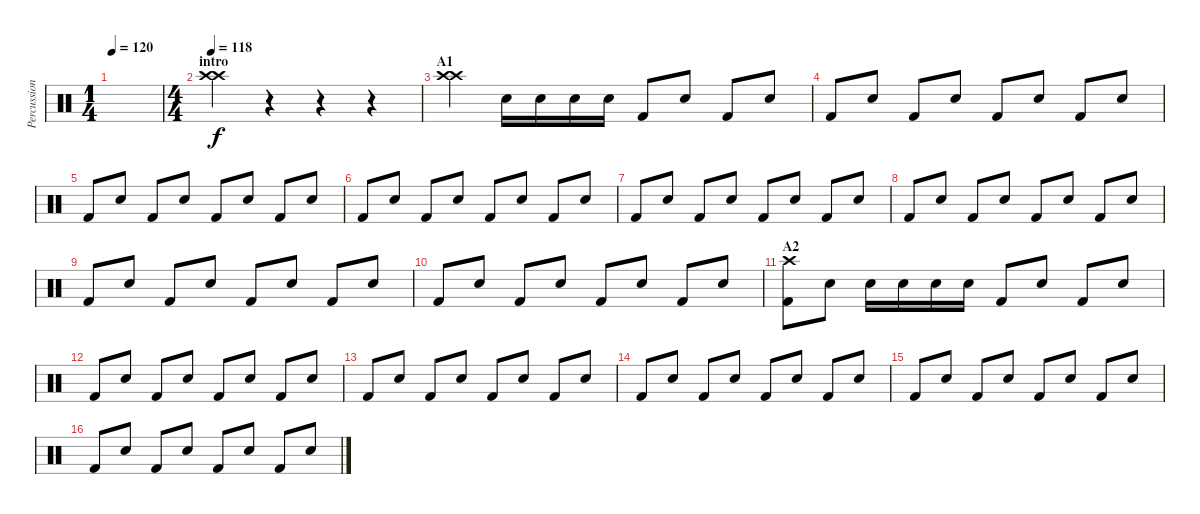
\track ("Percussion" "Percussion") {instrument percussion}
\staff {score}
\articulation defaults
\ts (1 4)
\tempo 120
\clef neutral
\ks c
|
\ts (4 4)
\section ("" "intro")
\tempo 118
("Crash high (hit)" "Crash high (hit)").4 r.4 r.4 r.4 |
\section ("" "A1")
("Crash high (hit)" "Crash high (hit)").4 "Electric Snare (hit)".16 "Electric Snare (hit)".16 "Electric Snare (hit)".16 "Electric Snare (hit)".16 "Kick (hit) 2".8 "Electric Snare (hit)".8 "Kick (hit) 2".8 "Electric Snare (hit)".8 |
"Kick (hit) 2".8 "Electric Snare (hit)".8 "Kick (hit) 2".8 "Electric Snare (hit)".8 "Kick (hit) 2".8 "Electric Snare (hit)".8 "Kick (hit) 2".8 "Electric Snare (hit)".8 |
"Kick (hit) 2".8 "Electric Snare (hit)".8 "Kick (hit) 2".8 "Electric Snare (hit)".8 "Kick (hit) 2".8 "Electric Snare (hit)".8 "Kick (hit) 2".8 "Electric Snare (hit)".8 |
"Kick (hit) 2".8 "Electric Snare (hit)".8 "Kick (hit) 2".8 "Electric Snare (hit)".8 "Kick (hit) 2".8 "Electric Snare (hit)".8 "Kick (hit) 2".8 "Electric Snare (hit)".8 |
"Kick (hit) 2".8 "Electric Snare (hit)".8 "Kick (hit) 2".8 "Electric Snare (hit)".8 "Kick (hit) 2".8 "Electric Snare (hit)".8 "Kick (hit) 2".8 "Electric Snare (hit)".8 |
"Kick (hit) 2".8 "Electric Snare (hit)".8 "Kick (hit) 2".8 "Electric Snare (hit)".8 "Kick (hit) 2".8 "Electric Snare (hit)".8 "Kick (hit) 2".8 "Electric Snare (hit)".8 |
"Kick (hit) 2".8 "Electric Snare (hit)".8 "Kick (hit) 2".8 "Electric Snare (hit)".8 "Kick (hit) 2".8 "Electric Snare (hit)".8 "Kick (hit) 2".8 "Electric Snare (hit)".8 |
"Kick (hit) 2".8 "Electric Snare (hit)".8 "Kick (hit) 2".8 "Electric Snare (hit)".8 "Kick (hit) 2".8 "Electric Snare (hit)".8 "Kick (hit) 2".8 "Electric Snare (hit)".8 |
\section ("" "A2")
("Kick (hit) 2" "Crash high (hit)").8 "Electric Snare (hit)".8 "Electric Snare (hit)".16 "Electric Snare (hit)".16 "Electric Snare (hit)".16 "Electric Snare (hit)".16 "Kick (hit) 2".8 "Electric Snare (hit)".8 "Kick (hit) 2".8 "Electric Snare (hit)".8 |
"Kick (hit) 2".8 "Electric Snare (hit)".8 "Kick (hit) 2".8 "Electric Snare (hit)".8 "Kick (hit) 2".8 "Electric Snare (hit)".8 "Kick (hit) 2".8 "Electric Snare (hit)".8 |
"Kick (hit) 2".8 "Electric Snare (hit)".8 "Kick (hit) 2".8 "Electric Snare (hit)".8 "Kick (hit) 2".8 "Electric Snare (hit)".8 "Kick (hit) 2".8 "Electric Snare (hit)".8 |
"Kick (hit) 2".8 "Electric Snare (hit)".8 "Kick (hit) 2".8 "Electric Snare (hit)".8 "Kick (hit) 2".8 "Electric Snare (hit)".8 "Kick (hit) 2".8 "Electric Snare (hit)".8 |
"Kick (hit) 2".8 "Electric Snare (hit)".8 "Kick (hit) 2".8 "Electric Snare (hit)".8 "Kick (hit) 2".8 "Electric Snare (hit)".8 "Kick (hit) 2".8 "Electric Snare (hit)".8 |
"Kick (hit) 2".8 "Electric Snare (hit)".8 "Kick (hit) 2".8 "Electric Snare (hit)".8 "Kick (hit) 2".8 "Electric Snare (hit)".8 "Kick (hit) 2".8 "Electric Snare (hit)".8
